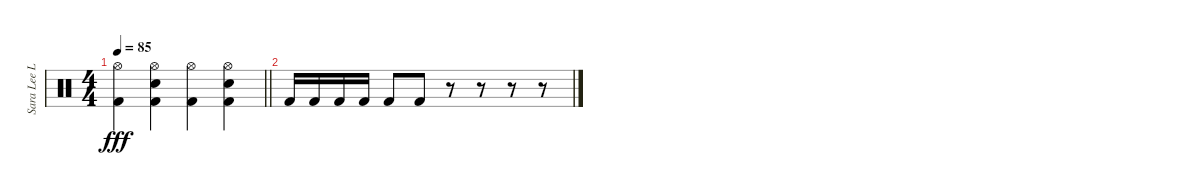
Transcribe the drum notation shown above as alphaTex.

\track ("Sara Lee Lucas" "Sara Lee L") {instrument percussion}
\staff {score}
\articulation defaults
\ts (4 4)
\tempo 85
\clef neutral
\barLineRight lightlight
\ks c
("Hi-Hat (open)" "Kick (hit) 2").4{dy fff} ("Hi-Hat (open)" "Kick (hit) 2" "Snare (hit) 2").4 ("Hi-Hat (open)" "Kick (hit) 2").4 ("Hi-Hat (open)" "Kick (hit) 2" "Snare (hit) 2").4 |
"Kick (hit) 2".16 "Kick (hit) 2".16 "Kick (hit) 2".16 "Kick (hit) 2".16 "Kick (hit) 2".8 "Kick (hit) 2".8 r.8 r.8 r.8 r.8
